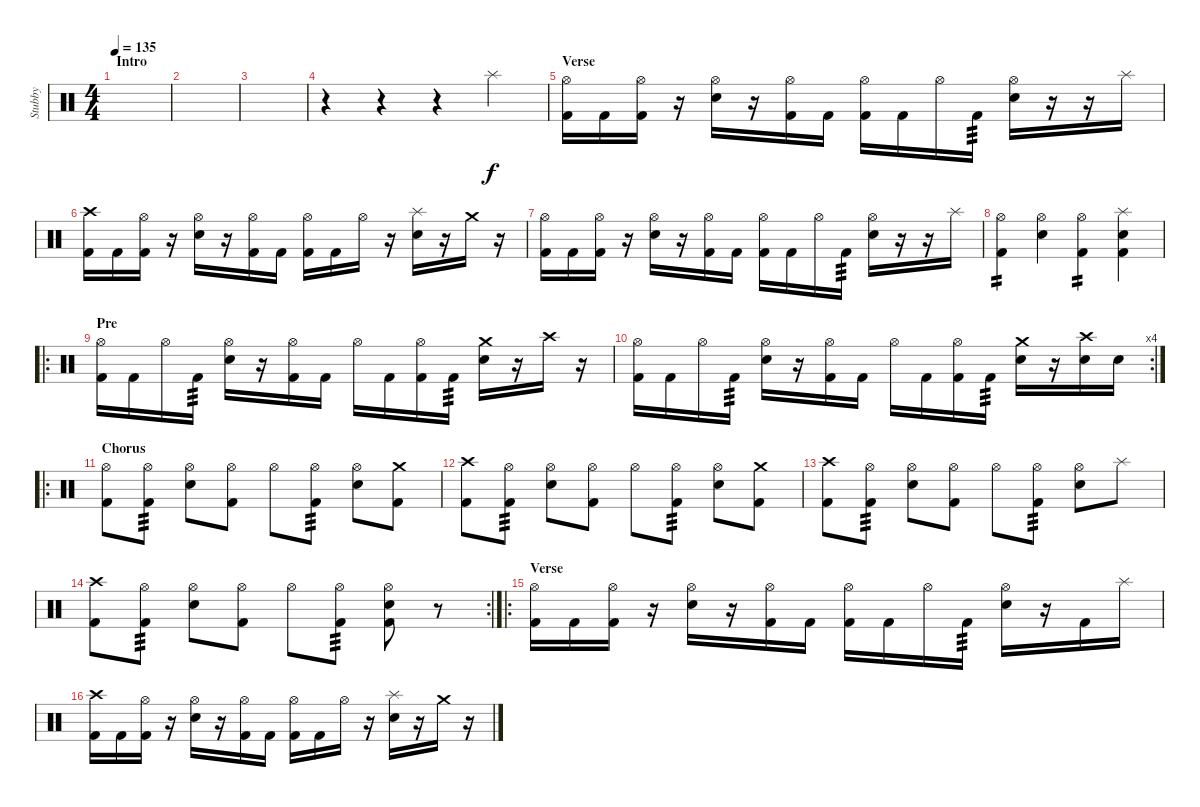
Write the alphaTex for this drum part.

\track ("Stubby" "Stubby") {instrument percussion}
\staff {score}
\articulation defaults
\ts (4 4)
\section ("" "Intro")
\tempo 135
\clef neutral
\ks c
|
|
|
r.4 r.4 r.4 "Splash (hit)".4 |
\section ("" "Verse")
("Hi-Hat (open)" "Kick (hit) 2").16 "Kick (hit) 2".16 ("Hi-Hat (open)" "Kick (hit) 2").16 r.16 ("Hi-Hat (open)" "Electric Snare (hit)").16 r.16 ("Hi-Hat (open)" "Kick (hit) 2").16 "Kick (hit) 2".16 ("Hi-Hat (open)" "Kick (hit) 2").16 "Kick (hit) 2".16 "Hi-Hat (open)".16 "Kick (hit) 2".16{tp 3} ("Hi-Hat (open)" "Electric Snare (hit)").16 r.16 r.16 "Splash (hit)".16 |
("Crash high (hit)" "Kick (hit) 2").16 "Kick (hit) 2".16 ("Hi-Hat (open)" "Kick (hit) 2").16 r.16 ("Hi-Hat (open)" "Electric Snare (hit)").16 r.16 ("Hi-Hat (open)" "Kick (hit) 2").16 "Kick (hit) 2".16 ("Hi-Hat (open)" "Kick (hit) 2").16 "Kick (hit) 2".16 "Hi-Hat (open)".16 r.16 ("Splash (hit)" "Electric Snare (hit)").16 r.16 "Crash medium (hit)".16 r.16 |
("Hi-Hat (open)" "Kick (hit) 2").16 "Kick (hit) 2".16 ("Hi-Hat (open)" "Kick (hit) 2").16 r.16 ("Hi-Hat (open)" "Electric Snare (hit)").16 r.16 ("Hi-Hat (open)" "Kick (hit) 2").16 "Kick (hit) 2".16 ("Hi-Hat (open)" "Kick (hit) 2").16 "Kick (hit) 2".16 "Hi-Hat (open)".16 "Kick (hit) 2".16{tp 3} ("Hi-Hat (open)" "Electric Snare (hit)").16 r.16 r.16 "Splash (hit)".16 |
("Hi-Hat (open)" "Kick (hit) 2").4{tp 2} ("Hi-Hat (open)" "Electric Snare (hit)").4 ("Hi-Hat (open)" "Kick (hit) 2").4{tp 2} ("Splash (hit)" "Electric Snare (hit)" "Kick (hit) 2").4 |
\ro
\section ("" "Pre")
("Hi-Hat (open)" "Kick (hit) 2").16 "Kick (hit) 2".16 "Hi-Hat (open)".16 "Kick (hit) 2".16{tp 3} ("Hi-Hat (open)" "Electric Snare (hit)").16 r.16 ("Hi-Hat (open)" "Kick (hit) 2").16 "Kick (hit) 2".16 "Hi-Hat (open)".16 "Kick (hit) 2".16 ("Hi-Hat (open)" "Kick (hit) 2").16 "Kick (hit) 2".16{tp 3} ("Crash medium (hit)" "Electric Snare (hit)").16 r.16 "Crash high (hit)".16 r.16 |
\rc 4
("Hi-Hat (open)" "Kick (hit) 2").16 "Kick (hit) 2".16 "Hi-Hat (open)".16 "Kick (hit) 2".16{tp 3} ("Hi-Hat (open)" "Electric Snare (hit)").16 r.16 ("Hi-Hat (open)" "Kick (hit) 2").16 "Kick (hit) 2".16 "Hi-Hat (open)".16 "Kick (hit) 2".16 ("Hi-Hat (open)" "Kick (hit) 2").16 "Kick (hit) 2".16{tp 3} ("Crash medium (hit)" "Electric Snare (hit)").16 r.16 ("Crash high (hit)" "Electric Snare (hit)").16 "Electric Snare (hit)".16 |
\ro
\section ("" "Chorus")
("Hi-Hat (open)" "Kick (hit) 2").8 ("Hi-Hat (open)" "Kick (hit) 2").8{tp 3} ("Hi-Hat (open)" "Electric Snare (hit)").8 ("Hi-Hat (open)" "Kick (hit) 2").8 "Hi-Hat (open)".8 ("Hi-Hat (open)" "Kick (hit) 2").8{tp 3} ("Hi-Hat (open)" "Electric Snare (hit)").8 ("Crash medium (hit)" "Kick (hit) 2").8 |
("Crash high (hit)" "Kick (hit) 2").8 ("Hi-Hat (open)" "Kick (hit) 2").8{tp 3} ("Hi-Hat (open)" "Electric Snare (hit)").8 ("Hi-Hat (open)" "Kick (hit) 2").8 "Hi-Hat (open)".8 ("Hi-Hat (open)" "Kick (hit) 2").8{tp 3} ("Hi-Hat (open)" "Electric Snare (hit)").8 ("Crash medium (hit)" "Kick (hit) 2").8 |
("Crash high (hit)" "Kick (hit) 2").8 ("Hi-Hat (open)" "Kick (hit) 2").8{tp 3} ("Hi-Hat (open)" "Electric Snare (hit)").8 ("Hi-Hat (open)" "Kick (hit) 2").8 "Hi-Hat (open)".8 ("Hi-Hat (open)" "Kick (hit) 2").8{tp 3} ("Hi-Hat (open)" "Electric Snare (hit)").8 "Splash (hit)".8 |
\rc 2
("Crash high (hit)" "Kick (hit) 2").8 ("Hi-Hat (open)" "Kick (hit) 2").8{tp 3} ("Hi-Hat (open)" "Electric Snare (hit)").8 ("Hi-Hat (open)" "Kick (hit) 2").8 "Hi-Hat (open)".8 ("Hi-Hat (open)" "Kick (hit) 2").8{tp 3} ("Hi-Hat (open)" "Electric Snare (hit)" "Kick (hit) 2").8 r.8 |
\ro
\section ("" "Verse")
("Hi-Hat (open)" "Kick (hit) 2").16 "Kick (hit) 2".16 ("Hi-Hat (open)" "Kick (hit) 2").16 r.16 ("Hi-Hat (open)" "Electric Snare (hit)").16 r.16 ("Hi-Hat (open)" "Kick (hit) 2").16 "Kick (hit) 2".16 ("Hi-Hat (open)" "Kick (hit) 2").16 "Kick (hit) 2".16 "Hi-Hat (open)".16 "Kick (hit) 2".16{tp 3} ("Hi-Hat (open)" "Electric Snare (hit)").16 r.16 "Kick (hit) 2".16 "Splash (hit)".16 |
("Crash high (hit)" "Kick (hit) 2").16 "Kick (hit) 2".16 ("Hi-Hat (open)" "Kick (hit) 2").16 r.16 ("Hi-Hat (open)" "Electric Snare (hit)").16 r.16 ("Hi-Hat (open)" "Kick (hit) 2").16 "Kick (hit) 2".16 ("Hi-Hat (open)" "Kick (hit) 2").16 "Kick (hit) 2".16 "Hi-Hat (open)".16 r.16 ("Splash (hit)" "Electric Snare (hit)").16 r.16 "Crash medium (hit)".16 r.16
